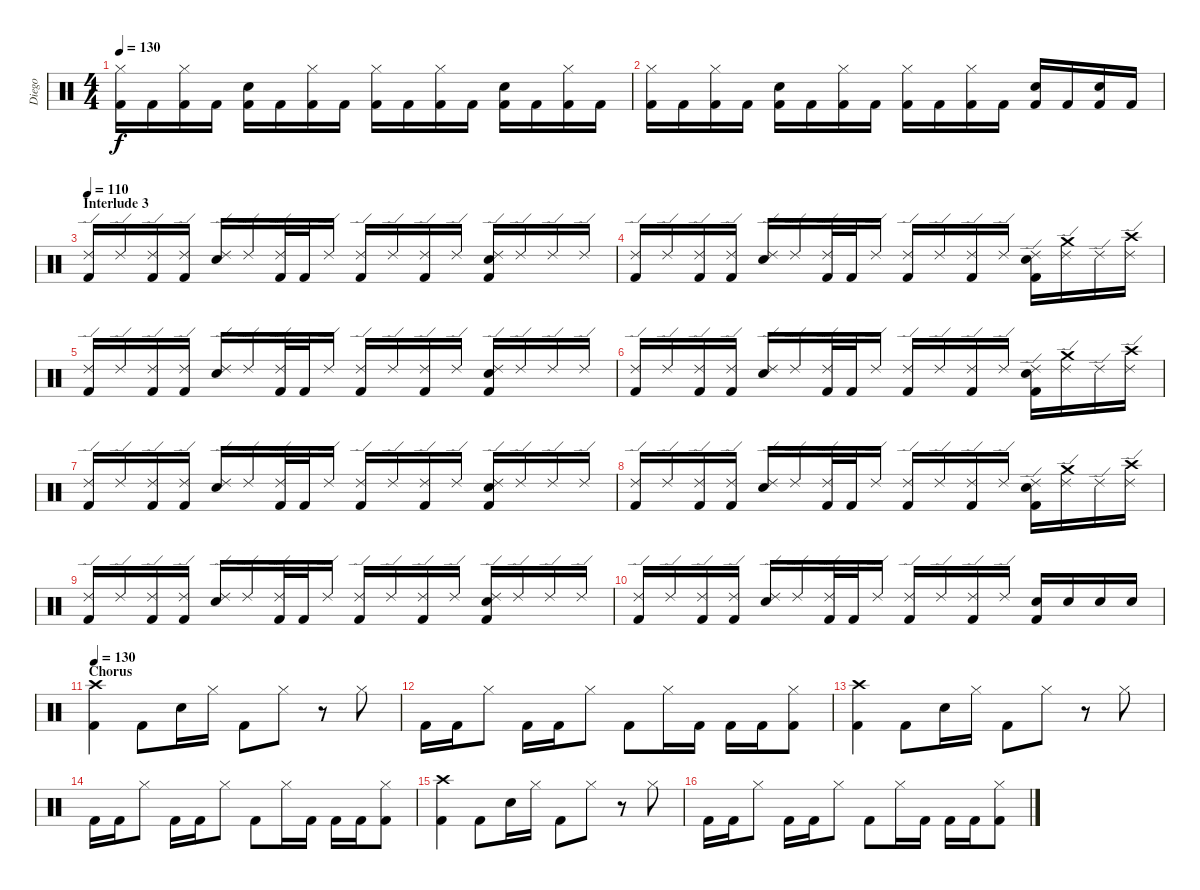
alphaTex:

\track ("Diego" "Diego") {instrument percussion}
\staff {score}
\articulation defaults
\ts (4 4)
\tempo 130
\clef neutral
\ks c
("Hi-Hat (closed)" "Kick (hit) 2").16{dy f} "Kick (hit) 2".16 ("Hi-Hat (closed)" "Kick (hit) 2").16 "Kick (hit) 2".16 ("Snare (hit) 2" "Kick (hit) 2").16 "Kick (hit) 2".16 ("Hi-Hat (closed)" "Kick (hit) 2").16 "Kick (hit) 2".16 ("Hi-Hat (closed)" "Kick (hit) 2").16 "Kick (hit) 2".16 ("Hi-Hat (closed)" "Kick (hit) 2").16 "Kick (hit) 2".16 ("Snare (hit) 2" "Kick (hit) 2").16 "Kick (hit) 2".16 ("Hi-Hat (closed)" "Kick (hit) 2").16 "Kick (hit) 2".16 |
("Hi-Hat (closed)" "Kick (hit) 2").16 "Kick (hit) 2".16 ("Hi-Hat (closed)" "Kick (hit) 2").16 "Kick (hit) 2".16 ("Snare (hit) 2" "Kick (hit) 2").16 "Kick (hit) 2".16 ("Hi-Hat (closed)" "Kick (hit) 2").16 "Kick (hit) 2".16 ("Hi-Hat (closed)" "Kick (hit) 2").16 "Kick (hit) 2".16 ("Hi-Hat (closed)" "Kick (hit) 2").16 "Kick (hit) 2".16 ("Snare (hit) 2" "Kick (hit) 2").16 "Kick (hit) 2".16 ("Snare (hit) 2" "Kick (hit) 2").16 "Kick (hit) 2".16 |
\section ("" "Interlude 3")
\tempo 110
("Ride (edge) 2" "Kick (hit) 2").16 "Ride (edge) 2".16 ("Ride (edge) 2" "Kick (hit) 2").16 ("Ride (edge) 2" "Kick (hit) 2").16 ("Snare (hit) 2" "Ride (edge) 2").16 "Ride (edge) 2".16 ("Ride (edge) 2" "Kick (hit) 2").32 "Kick (hit) 2".32 "Ride (edge) 2".16 ("Ride (edge) 2" "Kick (hit) 2").16 "Ride (edge) 2".16 ("Ride (edge) 2" "Kick (hit) 2").16 "Ride (edge) 2".16 ("Ride (edge) 2" "Snare (hit) 2" "Kick (hit) 2").16 "Ride (edge) 2".16 "Ride (edge) 2".16 "Ride (edge) 2".16 |
("Ride (edge) 2" "Kick (hit) 2").16 "Ride (edge) 2".16 ("Ride (edge) 2" "Kick (hit) 2").16 ("Ride (edge) 2" "Kick (hit) 2").16 ("Snare (hit) 2" "Ride (edge) 2").16 "Ride (edge) 2".16 ("Ride (edge) 2" "Kick (hit) 2").32 "Kick (hit) 2".32 "Ride (edge) 2".16 ("Ride (edge) 2" "Kick (hit) 2").16 "Ride (edge) 2".16 ("Ride (edge) 2" "Kick (hit) 2").16 "Ride (edge) 2".16 ("Ride (edge) 2" "Snare (hit) 2" "Kick (hit) 2").16 ("Crash medium (hit)" "Ride (edge) 2").16 "Ride (edge) 2".16 ("Crash high (hit)" "Ride (edge) 2").16 |
("Ride (edge) 2" "Kick (hit) 2").16 "Ride (edge) 2".16 ("Ride (edge) 2" "Kick (hit) 2").16 ("Ride (edge) 2" "Kick (hit) 2").16 ("Snare (hit) 2" "Ride (edge) 2").16 "Ride (edge) 2".16 ("Ride (edge) 2" "Kick (hit) 2").32 "Kick (hit) 2".32 "Ride (edge) 2".16 ("Ride (edge) 2" "Kick (hit) 2").16 "Ride (edge) 2".16 ("Ride (edge) 2" "Kick (hit) 2").16 "Ride (edge) 2".16 ("Ride (edge) 2" "Snare (hit) 2" "Kick (hit) 2").16 "Ride (edge) 2".16 "Ride (edge) 2".16 "Ride (edge) 2".16 |
("Ride (edge) 2" "Kick (hit) 2").16 "Ride (edge) 2".16 ("Ride (edge) 2" "Kick (hit) 2").16 ("Ride (edge) 2" "Kick (hit) 2").16 ("Snare (hit) 2" "Ride (edge) 2").16 "Ride (edge) 2".16 ("Ride (edge) 2" "Kick (hit) 2").32 "Kick (hit) 2".32 "Ride (edge) 2".16 ("Ride (edge) 2" "Kick (hit) 2").16 "Ride (edge) 2".16 ("Ride (edge) 2" "Kick (hit) 2").16 "Ride (edge) 2".16 ("Ride (edge) 2" "Snare (hit) 2" "Kick (hit) 2").16 ("Crash medium (hit)" "Ride (edge) 2").16 "Ride (edge) 2".16 ("Crash high (hit)" "Ride (edge) 2").16 |
("Ride (edge) 2" "Kick (hit) 2").16 "Ride (edge) 2".16 ("Ride (edge) 2" "Kick (hit) 2").16 ("Ride (edge) 2" "Kick (hit) 2").16 ("Snare (hit) 2" "Ride (edge) 2").16 "Ride (edge) 2".16 ("Ride (edge) 2" "Kick (hit) 2").32 "Kick (hit) 2".32 "Ride (edge) 2".16 ("Ride (edge) 2" "Kick (hit) 2").16 "Ride (edge) 2".16 ("Ride (edge) 2" "Kick (hit) 2").16 "Ride (edge) 2".16 ("Ride (edge) 2" "Snare (hit) 2" "Kick (hit) 2").16 "Ride (edge) 2".16 "Ride (edge) 2".16 "Ride (edge) 2".16 |
("Ride (edge) 2" "Kick (hit) 2").16 "Ride (edge) 2".16 ("Ride (edge) 2" "Kick (hit) 2").16 ("Ride (edge) 2" "Kick (hit) 2").16 ("Snare (hit) 2" "Ride (edge) 2").16 "Ride (edge) 2".16 ("Ride (edge) 2" "Kick (hit) 2").32 "Kick (hit) 2".32 "Ride (edge) 2".16 ("Ride (edge) 2" "Kick (hit) 2").16 "Ride (edge) 2".16 ("Ride (edge) 2" "Kick (hit) 2").16 "Ride (edge) 2".16 ("Ride (edge) 2" "Snare (hit) 2" "Kick (hit) 2").16 ("Crash medium (hit)" "Ride (edge) 2").16 "Ride (edge) 2".16 ("Crash high (hit)" "Ride (edge) 2").16 |
("Ride (edge) 2" "Kick (hit) 2").16 "Ride (edge) 2".16 ("Ride (edge) 2" "Kick (hit) 2").16 ("Ride (edge) 2" "Kick (hit) 2").16 ("Snare (hit) 2" "Ride (edge) 2").16 "Ride (edge) 2".16 ("Ride (edge) 2" "Kick (hit) 2").32 "Kick (hit) 2".32 "Ride (edge) 2".16 ("Ride (edge) 2" "Kick (hit) 2").16 "Ride (edge) 2".16 ("Ride (edge) 2" "Kick (hit) 2").16 "Ride (edge) 2".16 ("Ride (edge) 2" "Snare (hit) 2" "Kick (hit) 2").16 "Ride (edge) 2".16 "Ride (edge) 2".16 "Ride (edge) 2".16 |
("Ride (edge) 2" "Kick (hit) 2").16 "Ride (edge) 2".16 ("Ride (edge) 2" "Kick (hit) 2").16 ("Ride (edge) 2" "Kick (hit) 2").16 ("Snare (hit) 2" "Ride (edge) 2").16 "Ride (edge) 2".16 ("Ride (edge) 2" "Kick (hit) 2").32 "Kick (hit) 2".32 "Ride (edge) 2".16 ("Ride (edge) 2" "Kick (hit) 2").16 "Ride (edge) 2".16 ("Ride (edge) 2" "Kick (hit) 2").16 "Ride (edge) 2".16 ("Snare (hit) 2" "Kick (hit) 2").16 "Snare (hit) 2".16 "Snare (hit) 2".16 "Snare (hit) 2".16 |
\section ("" "Chorus")
\tempo 130
("Crash high (hit)" "Kick (hit) 2").4 "Kick (hit) 2".8 "Snare (hit) 2".16 "Hi-Hat (closed)".16 "Kick (hit) 2".8 "Hi-Hat (closed)".8 r.8 "Hi-Hat (closed)".8 |
"Kick (hit) 2".16 "Kick (hit) 2".16 "Hi-Hat (closed)".8 "Kick (hit) 2".16 "Kick (hit) 2".16 "Hi-Hat (closed)".8 "Kick (hit) 2".8 "Hi-Hat (closed)".16 "Kick (hit) 2".16 "Kick (hit) 2".16 "Kick (hit) 2".16 ("Hi-Hat (closed)" "Kick (hit) 2").8 |
("Crash high (hit)" "Kick (hit) 2").4 "Kick (hit) 2".8 "Snare (hit) 2".16 "Hi-Hat (closed)".16 "Kick (hit) 2".8 "Hi-Hat (closed)".8 r.8 "Hi-Hat (closed)".8 |
"Kick (hit) 2".16 "Kick (hit) 2".16 "Hi-Hat (closed)".8 "Kick (hit) 2".16 "Kick (hit) 2".16 "Hi-Hat (closed)".8 "Kick (hit) 2".8 "Hi-Hat (closed)".16 "Kick (hit) 2".16 "Kick (hit) 2".16 "Kick (hit) 2".16 ("Hi-Hat (closed)" "Kick (hit) 2").8 |
("Crash high (hit)" "Kick (hit) 2").4 "Kick (hit) 2".8 "Snare (hit) 2".16 "Hi-Hat (closed)".16 "Kick (hit) 2".8 "Hi-Hat (closed)".8 r.8 "Hi-Hat (closed)".8 |
"Kick (hit) 2".16 "Kick (hit) 2".16 "Hi-Hat (closed)".8 "Kick (hit) 2".16 "Kick (hit) 2".16 "Hi-Hat (closed)".8 "Kick (hit) 2".8 "Hi-Hat (closed)".16 "Kick (hit) 2".16 "Kick (hit) 2".16 "Kick (hit) 2".16 ("Hi-Hat (closed)" "Kick (hit) 2").8
